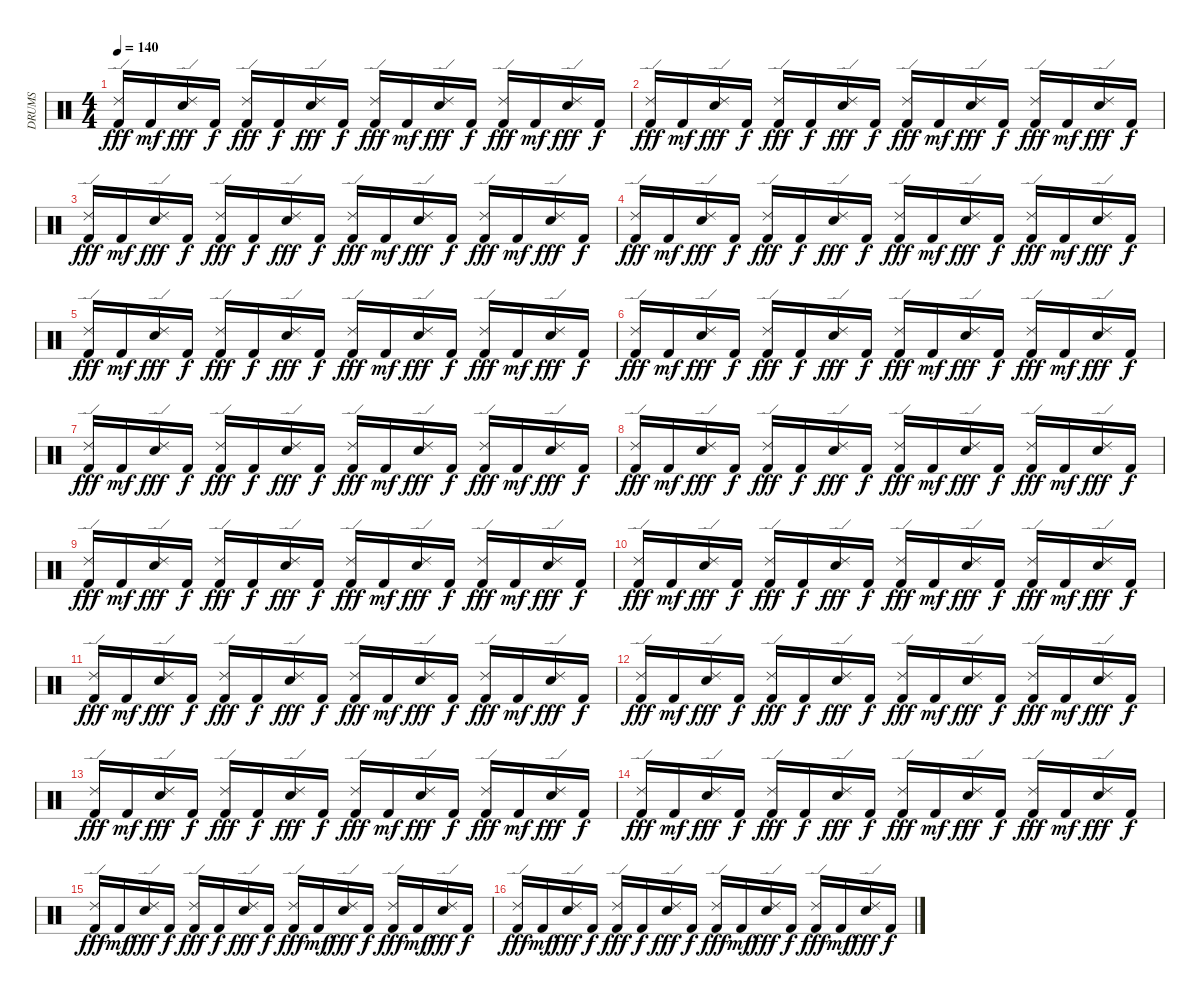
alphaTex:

\track ("DRUMS" "DRUMS") {instrument percussion}
\staff {score}
\articulation defaults
\ts (4 4)
\tempo 140
\clef neutral
\ks c
("Ride (edge) 2" "Kick (hit) 2").16{dy fff} "Kick (hit) 2".16{dy mf} ("Ride (edge) 2" "Electric Snare (hit)").16{dy fff} "Kick (hit) 2".16{dy f} ("Ride (edge) 2" "Kick (hit) 2").16{dy fff} "Kick (hit) 2".16{dy f} ("Ride (edge) 2" "Electric Snare (hit)").16{dy fff} "Kick (hit) 2".16{dy f} ("Ride (edge) 2" "Kick (hit) 2").16{dy fff} "Kick (hit) 2".16{dy mf} ("Ride (edge) 2" "Electric Snare (hit)").16{dy fff} "Kick (hit) 2".16{dy f} ("Ride (edge) 2" "Kick (hit) 2").16{dy fff} "Kick (hit) 2".16{dy mf} ("Electric Snare (hit)" "Ride (edge) 2").16{dy fff} "Kick (hit) 2".16{dy f} |
("Ride (edge) 2" "Kick (hit) 2").16{dy fff} "Kick (hit) 2".16{dy mf} ("Ride (edge) 2" "Electric Snare (hit)").16{dy fff} "Kick (hit) 2".16{dy f} ("Ride (edge) 2" "Kick (hit) 2").16{dy fff} "Kick (hit) 2".16{dy f} ("Ride (edge) 2" "Electric Snare (hit)").16{dy fff} "Kick (hit) 2".16{dy f} ("Ride (edge) 2" "Kick (hit) 2").16{dy fff} "Kick (hit) 2".16{dy mf} ("Ride (edge) 2" "Electric Snare (hit)").16{dy fff} "Kick (hit) 2".16{dy f} ("Ride (edge) 2" "Kick (hit) 2").16{dy fff} "Kick (hit) 2".16{dy mf} ("Electric Snare (hit)" "Ride (edge) 2").16{dy fff} "Kick (hit) 2".16{dy f} |
("Ride (edge) 2" "Kick (hit) 2").16{dy fff} "Kick (hit) 2".16{dy mf} ("Ride (edge) 2" "Electric Snare (hit)").16{dy fff} "Kick (hit) 2".16{dy f} ("Ride (edge) 2" "Kick (hit) 2").16{dy fff} "Kick (hit) 2".16{dy f} ("Ride (edge) 2" "Electric Snare (hit)").16{dy fff} "Kick (hit) 2".16{dy f} ("Ride (edge) 2" "Kick (hit) 2").16{dy fff} "Kick (hit) 2".16{dy mf} ("Ride (edge) 2" "Electric Snare (hit)").16{dy fff} "Kick (hit) 2".16{dy f} ("Ride (edge) 2" "Kick (hit) 2").16{dy fff} "Kick (hit) 2".16{dy mf} ("Electric Snare (hit)" "Ride (edge) 2").16{dy fff} "Kick (hit) 2".16{dy f} |
("Ride (edge) 2" "Kick (hit) 2").16{dy fff} "Kick (hit) 2".16{dy mf} ("Ride (edge) 2" "Electric Snare (hit)").16{dy fff} "Kick (hit) 2".16{dy f} ("Ride (edge) 2" "Kick (hit) 2").16{dy fff} "Kick (hit) 2".16{dy f} ("Ride (edge) 2" "Electric Snare (hit)").16{dy fff} "Kick (hit) 2".16{dy f} ("Ride (edge) 2" "Kick (hit) 2").16{dy fff} "Kick (hit) 2".16{dy mf} ("Ride (edge) 2" "Electric Snare (hit)").16{dy fff} "Kick (hit) 2".16{dy f} ("Ride (edge) 2" "Kick (hit) 2").16{dy fff} "Kick (hit) 2".16{dy mf} ("Electric Snare (hit)" "Ride (edge) 2").16{dy fff} "Kick (hit) 2".16{dy f} |
("Ride (edge) 2" "Kick (hit) 2").16{dy fff} "Kick (hit) 2".16{dy mf} ("Ride (edge) 2" "Electric Snare (hit)").16{dy fff} "Kick (hit) 2".16{dy f} ("Ride (edge) 2" "Kick (hit) 2").16{dy fff} "Kick (hit) 2".16{dy f} ("Ride (edge) 2" "Electric Snare (hit)").16{dy fff} "Kick (hit) 2".16{dy f} ("Ride (edge) 2" "Kick (hit) 2").16{dy fff} "Kick (hit) 2".16{dy mf} ("Ride (edge) 2" "Electric Snare (hit)").16{dy fff} "Kick (hit) 2".16{dy f} ("Ride (edge) 2" "Kick (hit) 2").16{dy fff} "Kick (hit) 2".16{dy mf} ("Electric Snare (hit)" "Ride (edge) 2").16{dy fff} "Kick (hit) 2".16{dy f} |
("Ride (edge) 2" "Kick (hit) 2").16{dy fff} "Kick (hit) 2".16{dy mf} ("Ride (edge) 2" "Electric Snare (hit)").16{dy fff} "Kick (hit) 2".16{dy f} ("Ride (edge) 2" "Kick (hit) 2").16{dy fff} "Kick (hit) 2".16{dy f} ("Ride (edge) 2" "Electric Snare (hit)").16{dy fff} "Kick (hit) 2".16{dy f} ("Ride (edge) 2" "Kick (hit) 2").16{dy fff} "Kick (hit) 2".16{dy mf} ("Ride (edge) 2" "Electric Snare (hit)").16{dy fff} "Kick (hit) 2".16{dy f} ("Ride (edge) 2" "Kick (hit) 2").16{dy fff} "Kick (hit) 2".16{dy mf} ("Electric Snare (hit)" "Ride (edge) 2").16{dy fff} "Kick (hit) 2".16{dy f} |
("Ride (edge) 2" "Kick (hit) 2").16{dy fff} "Kick (hit) 2".16{dy mf} ("Ride (edge) 2" "Electric Snare (hit)").16{dy fff} "Kick (hit) 2".16{dy f} ("Ride (edge) 2" "Kick (hit) 2").16{dy fff} "Kick (hit) 2".16{dy f} ("Ride (edge) 2" "Electric Snare (hit)").16{dy fff} "Kick (hit) 2".16{dy f} ("Ride (edge) 2" "Kick (hit) 2").16{dy fff} "Kick (hit) 2".16{dy mf} ("Ride (edge) 2" "Electric Snare (hit)").16{dy fff} "Kick (hit) 2".16{dy f} ("Ride (edge) 2" "Kick (hit) 2").16{dy fff} "Kick (hit) 2".16{dy mf} ("Electric Snare (hit)" "Ride (edge) 2").16{dy fff} "Kick (hit) 2".16{dy f} |
("Ride (edge) 2" "Kick (hit) 2").16{dy fff} "Kick (hit) 2".16{dy mf} ("Ride (edge) 2" "Electric Snare (hit)").16{dy fff} "Kick (hit) 2".16{dy f} ("Ride (edge) 2" "Kick (hit) 2").16{dy fff} "Kick (hit) 2".16{dy f} ("Ride (edge) 2" "Electric Snare (hit)").16{dy fff} "Kick (hit) 2".16{dy f} ("Ride (edge) 2" "Kick (hit) 2").16{dy fff} "Kick (hit) 2".16{dy mf} ("Ride (edge) 2" "Electric Snare (hit)").16{dy fff} "Kick (hit) 2".16{dy f} ("Ride (edge) 2" "Kick (hit) 2").16{dy fff} "Kick (hit) 2".16{dy mf} ("Electric Snare (hit)" "Ride (edge) 2").16{dy fff} "Kick (hit) 2".16{dy f} |
("Ride (edge) 2" "Kick (hit) 2").16{dy fff} "Kick (hit) 2".16{dy mf} ("Ride (edge) 2" "Electric Snare (hit)").16{dy fff} "Kick (hit) 2".16{dy f} ("Ride (edge) 2" "Kick (hit) 2").16{dy fff} "Kick (hit) 2".16{dy f} ("Ride (edge) 2" "Electric Snare (hit)").16{dy fff} "Kick (hit) 2".16{dy f} ("Ride (edge) 2" "Kick (hit) 2").16{dy fff} "Kick (hit) 2".16{dy mf} ("Ride (edge) 2" "Electric Snare (hit)").16{dy fff} "Kick (hit) 2".16{dy f} ("Ride (edge) 2" "Kick (hit) 2").16{dy fff} "Kick (hit) 2".16{dy mf} ("Electric Snare (hit)" "Ride (edge) 2").16{dy fff} "Kick (hit) 2".16{dy f} |
("Ride (edge) 2" "Kick (hit) 2").16{dy fff} "Kick (hit) 2".16{dy mf} ("Ride (edge) 2" "Electric Snare (hit)").16{dy fff} "Kick (hit) 2".16{dy f} ("Ride (edge) 2" "Kick (hit) 2").16{dy fff} "Kick (hit) 2".16{dy f} ("Ride (edge) 2" "Electric Snare (hit)").16{dy fff} "Kick (hit) 2".16{dy f} ("Ride (edge) 2" "Kick (hit) 2").16{dy fff} "Kick (hit) 2".16{dy mf} ("Ride (edge) 2" "Electric Snare (hit)").16{dy fff} "Kick (hit) 2".16{dy f} ("Ride (edge) 2" "Kick (hit) 2").16{dy fff} "Kick (hit) 2".16{dy mf} ("Electric Snare (hit)" "Ride (edge) 2").16{dy fff} "Kick (hit) 2".16{dy f} |
("Ride (edge) 2" "Kick (hit) 2").16{dy fff} "Kick (hit) 2".16{dy mf} ("Ride (edge) 2" "Electric Snare (hit)").16{dy fff} "Kick (hit) 2".16{dy f} ("Ride (edge) 2" "Kick (hit) 2").16{dy fff} "Kick (hit) 2".16{dy f} ("Ride (edge) 2" "Electric Snare (hit)").16{dy fff} "Kick (hit) 2".16{dy f} ("Ride (edge) 2" "Kick (hit) 2").16{dy fff} "Kick (hit) 2".16{dy mf} ("Ride (edge) 2" "Electric Snare (hit)").16{dy fff} "Kick (hit) 2".16{dy f} ("Ride (edge) 2" "Kick (hit) 2").16{dy fff} "Kick (hit) 2".16{dy mf} ("Electric Snare (hit)" "Ride (edge) 2").16{dy fff} "Kick (hit) 2".16{dy f} |
("Ride (edge) 2" "Kick (hit) 2").16{dy fff} "Kick (hit) 2".16{dy mf} ("Ride (edge) 2" "Electric Snare (hit)").16{dy fff} "Kick (hit) 2".16{dy f} ("Ride (edge) 2" "Kick (hit) 2").16{dy fff} "Kick (hit) 2".16{dy f} ("Ride (edge) 2" "Electric Snare (hit)").16{dy fff} "Kick (hit) 2".16{dy f} ("Ride (edge) 2" "Kick (hit) 2").16{dy fff} "Kick (hit) 2".16{dy mf} ("Ride (edge) 2" "Electric Snare (hit)").16{dy fff} "Kick (hit) 2".16{dy f} ("Ride (edge) 2" "Kick (hit) 2").16{dy fff} "Kick (hit) 2".16{dy mf} ("Electric Snare (hit)" "Ride (edge) 2").16{dy fff} "Kick (hit) 2".16{dy f} |
("Ride (edge) 2" "Kick (hit) 2").16{dy fff} "Kick (hit) 2".16{dy mf} ("Ride (edge) 2" "Electric Snare (hit)").16{dy fff} "Kick (hit) 2".16{dy f} ("Ride (edge) 2" "Kick (hit) 2").16{dy fff} "Kick (hit) 2".16{dy f} ("Ride (edge) 2" "Electric Snare (hit)").16{dy fff} "Kick (hit) 2".16{dy f} ("Ride (edge) 2" "Kick (hit) 2").16{dy fff} "Kick (hit) 2".16{dy mf} ("Ride (edge) 2" "Electric Snare (hit)").16{dy fff} "Kick (hit) 2".16{dy f} ("Ride (edge) 2" "Kick (hit) 2").16{dy fff} "Kick (hit) 2".16{dy mf} ("Electric Snare (hit)" "Ride (edge) 2").16{dy fff} "Kick (hit) 2".16{dy f} |
("Ride (edge) 2" "Kick (hit) 2").16{dy fff} "Kick (hit) 2".16{dy mf} ("Ride (edge) 2" "Electric Snare (hit)").16{dy fff} "Kick (hit) 2".16{dy f} ("Ride (edge) 2" "Kick (hit) 2").16{dy fff} "Kick (hit) 2".16{dy f} ("Ride (edge) 2" "Electric Snare (hit)").16{dy fff} "Kick (hit) 2".16{dy f} ("Ride (edge) 2" "Kick (hit) 2").16{dy fff} "Kick (hit) 2".16{dy mf} ("Ride (edge) 2" "Electric Snare (hit)").16{dy fff} "Kick (hit) 2".16{dy f} ("Ride (edge) 2" "Kick (hit) 2").16{dy fff} "Kick (hit) 2".16{dy mf} ("Electric Snare (hit)" "Ride (edge) 2").16{dy fff} "Kick (hit) 2".16{dy f} |
("Ride (edge) 2" "Kick (hit) 2").16{dy fff} "Kick (hit) 2".16{dy mf} ("Ride (edge) 2" "Electric Snare (hit)").16{dy fff} "Kick (hit) 2".16{dy f} ("Ride (edge) 2" "Kick (hit) 2").16{dy fff} "Kick (hit) 2".16{dy f} ("Ride (edge) 2" "Electric Snare (hit)").16{dy fff} "Kick (hit) 2".16{dy f} ("Ride (edge) 2" "Kick (hit) 2").16{dy fff} "Kick (hit) 2".16{dy mf} ("Ride (edge) 2" "Electric Snare (hit)").16{dy fff} "Kick (hit) 2".16{dy f} ("Ride (edge) 2" "Kick (hit) 2").16{dy fff} "Kick (hit) 2".16{dy mf} ("Electric Snare (hit)" "Ride (edge) 2").16{dy fff} "Kick (hit) 2".16{dy f} |
("Ride (edge) 2" "Kick (hit) 2").16{dy fff} "Kick (hit) 2".16{dy mf} ("Ride (edge) 2" "Electric Snare (hit)").16{dy fff} "Kick (hit) 2".16{dy f} ("Ride (edge) 2" "Kick (hit) 2").16{dy fff} "Kick (hit) 2".16{dy f} ("Ride (edge) 2" "Electric Snare (hit)").16{dy fff} "Kick (hit) 2".16{dy f} ("Ride (edge) 2" "Kick (hit) 2").16{dy fff} "Kick (hit) 2".16{dy mf} ("Ride (edge) 2" "Electric Snare (hit)").16{dy fff} "Kick (hit) 2".16{dy f} ("Ride (edge) 2" "Kick (hit) 2").16{dy fff} "Kick (hit) 2".16{dy mf} ("Electric Snare (hit)" "Ride (edge) 2").16{dy fff} "Kick (hit) 2".16{dy f}
